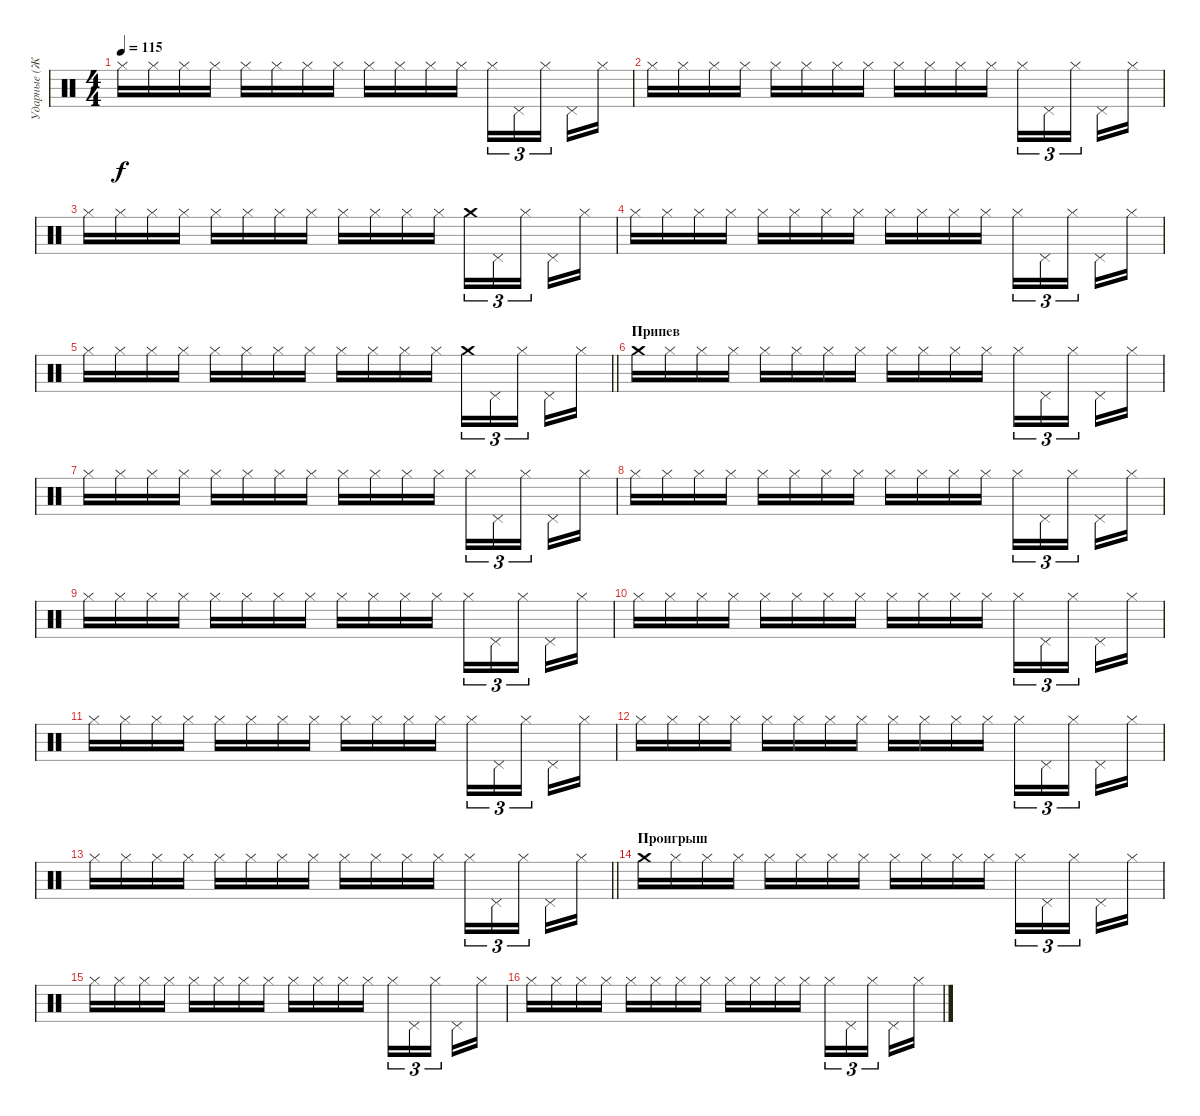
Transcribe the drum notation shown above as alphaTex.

\track ("Ударные (Железо)" "Ударные (Ж") {instrument percussion}
\staff {score}
\articulation defaults
\ts (4 4)
\tempo 115
\clef neutral
\ks c "Hi-Hat (closed)".16{dy f} "Hi-Hat (closed)".16 "Hi-Hat (closed)".16 "Hi-Hat (closed)".16 "Hi-Hat (closed)".16 "Hi-Hat (closed)".16 "Hi-Hat (closed)".16 "Hi-Hat (closed)".16 "Hi-Hat (closed)".16 "Hi-Hat (closed)".16 "Hi-Hat (closed)".16 "Hi-Hat (closed)".16 "Hi-Hat (closed)".16{tu (3 2)} "Pedal Hi-Hat (hit)".16{tu (3 2)} "Hi-Hat (closed)".16{tu (3 2) beam splitsecondary} "Pedal Hi-Hat (hit)".16 "Hi-Hat (closed)".16
|
"Hi-Hat (closed)".16 "Hi-Hat (closed)".16 "Hi-Hat (closed)".16 "Hi-Hat (closed)".16 "Hi-Hat (closed)".16 "Hi-Hat (closed)".16 "Hi-Hat (closed)".16 "Hi-Hat (closed)".16 "Hi-Hat (closed)".16 "Hi-Hat (closed)".16 "Hi-Hat (closed)".16 "Hi-Hat (closed)".16 "Hi-Hat (closed)".16{tu (3 2)} "Pedal Hi-Hat (hit)".16{tu (3 2)} "Hi-Hat (closed)".16{tu (3 2) beam splitsecondary} "Pedal Hi-Hat (hit)".16 "Hi-Hat (closed)".16 |
"Hi-Hat (closed)".16 "Hi-Hat (closed)".16 "Hi-Hat (closed)".16 "Hi-Hat (closed)".16 "Hi-Hat (closed)".16 "Hi-Hat (closed)".16 "Hi-Hat (closed)".16 "Hi-Hat (closed)".16 "Hi-Hat (closed)".16 "Hi-Hat (closed)".16 "Hi-Hat (closed)".16 "Hi-Hat (closed)".16 "Crash medium (hit)".16{tu (3 2)} "Pedal Hi-Hat (hit)".16{tu (3 2)} "Hi-Hat (closed)".16{tu (3 2) beam splitsecondary} "Pedal Hi-Hat (hit)".16 "Hi-Hat (closed)".16 |
"Hi-Hat (closed)".16 "Hi-Hat (closed)".16 "Hi-Hat (closed)".16 "Hi-Hat (closed)".16 "Hi-Hat (closed)".16 "Hi-Hat (closed)".16 "Hi-Hat (closed)".16 "Hi-Hat (closed)".16 "Hi-Hat (closed)".16 "Hi-Hat (closed)".16 "Hi-Hat (closed)".16 "Hi-Hat (closed)".16 "Hi-Hat (closed)".16{tu (3 2)} "Pedal Hi-Hat (hit)".16{tu (3 2)} "Hi-Hat (closed)".16{tu (3 2) beam splitsecondary} "Pedal Hi-Hat (hit)".16 "Hi-Hat (closed)".16 |
\barLineRight lightlight "Hi-Hat (closed)".16 "Hi-Hat (closed)".16 "Hi-Hat (closed)".16 "Hi-Hat (closed)".16 "Hi-Hat (closed)".16 "Hi-Hat (closed)".16 "Hi-Hat (closed)".16 "Hi-Hat (closed)".16 "Hi-Hat (closed)".16 "Hi-Hat (closed)".16 "Hi-Hat (closed)".16 "Hi-Hat (closed)".16 "Crash medium (hit)".16{tu (3 2)} "Pedal Hi-Hat (hit)".16{tu (3 2)} "Hi-Hat (closed)".16{tu (3 2) beam splitsecondary} "Pedal Hi-Hat (hit)".16 "Hi-Hat (closed)".16
|
\section ("" "Припев")
"Crash medium (hit)".16 "Hi-Hat (closed)".16 "Hi-Hat (closed)".16 "Hi-Hat (closed)".16 "Hi-Hat (closed)".16 "Hi-Hat (closed)".16 "Hi-Hat (closed)".16 "Hi-Hat (closed)".16 "Hi-Hat (closed)".16 "Hi-Hat (closed)".16 "Hi-Hat (closed)".16 "Hi-Hat (closed)".16 "Hi-Hat (closed)".16{tu (3 2)} "Pedal Hi-Hat (hit)".16{tu (3 2)} "Hi-Hat (closed)".16{tu (3 2) beam splitsecondary} "Pedal Hi-Hat (hit)".16 "Hi-Hat (closed)".16 |
"Hi-Hat (closed)".16 "Hi-Hat (closed)".16 "Hi-Hat (closed)".16 "Hi-Hat (closed)".16 "Hi-Hat (closed)".16 "Hi-Hat (closed)".16 "Hi-Hat (closed)".16 "Hi-Hat (closed)".16 "Hi-Hat (closed)".16 "Hi-Hat (closed)".16 "Hi-Hat (closed)".16 "Hi-Hat (closed)".16 "Hi-Hat (closed)".16{tu (3 2)} "Pedal Hi-Hat (hit)".16{tu (3 2)} "Hi-Hat (closed)".16{tu (3 2) beam splitsecondary} "Pedal Hi-Hat (hit)".16 "Hi-Hat (closed)".16 |
"Hi-Hat (closed)".16 "Hi-Hat (closed)".16 "Hi-Hat (closed)".16 "Hi-Hat (closed)".16 "Hi-Hat (closed)".16 "Hi-Hat (closed)".16 "Hi-Hat (closed)".16 "Hi-Hat (closed)".16 "Hi-Hat (closed)".16 "Hi-Hat (closed)".16 "Hi-Hat (closed)".16 "Hi-Hat (closed)".16 "Hi-Hat (closed)".16{tu (3 2)} "Pedal Hi-Hat (hit)".16{tu (3 2)} "Hi-Hat (closed)".16{tu (3 2) beam splitsecondary} "Pedal Hi-Hat (hit)".16 "Hi-Hat (closed)".16 |
"Hi-Hat (closed)".16 "Hi-Hat (closed)".16 "Hi-Hat (closed)".16 "Hi-Hat (closed)".16 "Hi-Hat (closed)".16 "Hi-Hat (closed)".16 "Hi-Hat (closed)".16 "Hi-Hat (closed)".16 "Hi-Hat (closed)".16 "Hi-Hat (closed)".16 "Hi-Hat (closed)".16 "Hi-Hat (closed)".16 "Hi-Hat (closed)".16{tu (3 2)} "Pedal Hi-Hat (hit)".16{tu (3 2)} "Hi-Hat (closed)".16{tu (3 2) beam splitsecondary} "Pedal Hi-Hat (hit)".16 "Hi-Hat (closed)".16 |
"Hi-Hat (closed)".16 "Hi-Hat (closed)".16 "Hi-Hat (closed)".16 "Hi-Hat (closed)".16 "Hi-Hat (closed)".16 "Hi-Hat (closed)".16 "Hi-Hat (closed)".16 "Hi-Hat (closed)".16 "Hi-Hat (closed)".16 "Hi-Hat (closed)".16 "Hi-Hat (closed)".16 "Hi-Hat (closed)".16 "Hi-Hat (closed)".16{tu (3 2)} "Pedal Hi-Hat (hit)".16{tu (3 2)} "Hi-Hat (closed)".16{tu (3 2) beam splitsecondary} "Pedal Hi-Hat (hit)".16 "Hi-Hat (closed)".16 |
"Hi-Hat (closed)".16 "Hi-Hat (closed)".16 "Hi-Hat (closed)".16 "Hi-Hat (closed)".16 "Hi-Hat (closed)".16 "Hi-Hat (closed)".16 "Hi-Hat (closed)".16 "Hi-Hat (closed)".16 "Hi-Hat (closed)".16 "Hi-Hat (closed)".16 "Hi-Hat (closed)".16 "Hi-Hat (closed)".16 "Hi-Hat (closed)".16{tu (3 2)} "Pedal Hi-Hat (hit)".16{tu (3 2)} "Hi-Hat (closed)".16{tu (3 2) beam splitsecondary} "Pedal Hi-Hat (hit)".16 "Hi-Hat (closed)".16 |
"Hi-Hat (closed)".16 "Hi-Hat (closed)".16 "Hi-Hat (closed)".16 "Hi-Hat (closed)".16 "Hi-Hat (closed)".16 "Hi-Hat (closed)".16 "Hi-Hat (closed)".16 "Hi-Hat (closed)".16 "Hi-Hat (closed)".16 "Hi-Hat (closed)".16 "Hi-Hat (closed)".16 "Hi-Hat (closed)".16 "Hi-Hat (closed)".16{tu (3 2)} "Pedal Hi-Hat (hit)".16{tu (3 2)} "Hi-Hat (closed)".16{tu (3 2) beam splitsecondary} "Pedal Hi-Hat (hit)".16 "Hi-Hat (closed)".16 |
\barLineRight lightlight "Hi-Hat (closed)".16 "Hi-Hat (closed)".16 "Hi-Hat (closed)".16 "Hi-Hat (closed)".16 "Hi-Hat (closed)".16 "Hi-Hat (closed)".16 "Hi-Hat (closed)".16 "Hi-Hat (closed)".16 "Hi-Hat (closed)".16 "Hi-Hat (closed)".16 "Hi-Hat (closed)".16 "Hi-Hat (closed)".16 "Hi-Hat (closed)".16{tu (3 2)} "Pedal Hi-Hat (hit)".16{tu (3 2)} "Hi-Hat (closed)".16{tu (3 2) beam splitsecondary} "Pedal Hi-Hat (hit)".16 "Hi-Hat (closed)".16
|
\section ("" "Проигрыш")
"Crash medium (hit)".16 "Hi-Hat (closed)".16 "Hi-Hat (closed)".16 "Hi-Hat (closed)".16 "Hi-Hat (closed)".16 "Hi-Hat (closed)".16 "Hi-Hat (closed)".16 "Hi-Hat (closed)".16 "Hi-Hat (closed)".16 "Hi-Hat (closed)".16 "Hi-Hat (closed)".16 "Hi-Hat (closed)".16 "Hi-Hat (closed)".16{tu (3 2)} "Pedal Hi-Hat (hit)".16{tu (3 2)} "Hi-Hat (closed)".16{tu (3 2) beam splitsecondary} "Pedal Hi-Hat (hit)".16 "Hi-Hat (closed)".16 |
"Hi-Hat (closed)".16 "Hi-Hat (closed)".16 "Hi-Hat (closed)".16 "Hi-Hat (closed)".16 "Hi-Hat (closed)".16 "Hi-Hat (closed)".16 "Hi-Hat (closed)".16 "Hi-Hat (closed)".16 "Hi-Hat (closed)".16 "Hi-Hat (closed)".16 "Hi-Hat (closed)".16 "Hi-Hat (closed)".16 "Hi-Hat (closed)".16{tu (3 2)} "Pedal Hi-Hat (hit)".16{tu (3 2)} "Hi-Hat (closed)".16{tu (3 2) beam splitsecondary} "Pedal Hi-Hat (hit)".16 "Hi-Hat (closed)".16 |
"Hi-Hat (closed)".16 "Hi-Hat (closed)".16 "Hi-Hat (closed)".16 "Hi-Hat (closed)".16 "Hi-Hat (closed)".16 "Hi-Hat (closed)".16 "Hi-Hat (closed)".16 "Hi-Hat (closed)".16 "Hi-Hat (closed)".16 "Hi-Hat (closed)".16 "Hi-Hat (closed)".16 "Hi-Hat (closed)".16 "Hi-Hat (closed)".16{tu (3 2)} "Pedal Hi-Hat (hit)".16{tu (3 2)} "Hi-Hat (closed)".16{tu (3 2) beam splitsecondary} "Pedal Hi-Hat (hit)".16 "Hi-Hat (closed)".16
